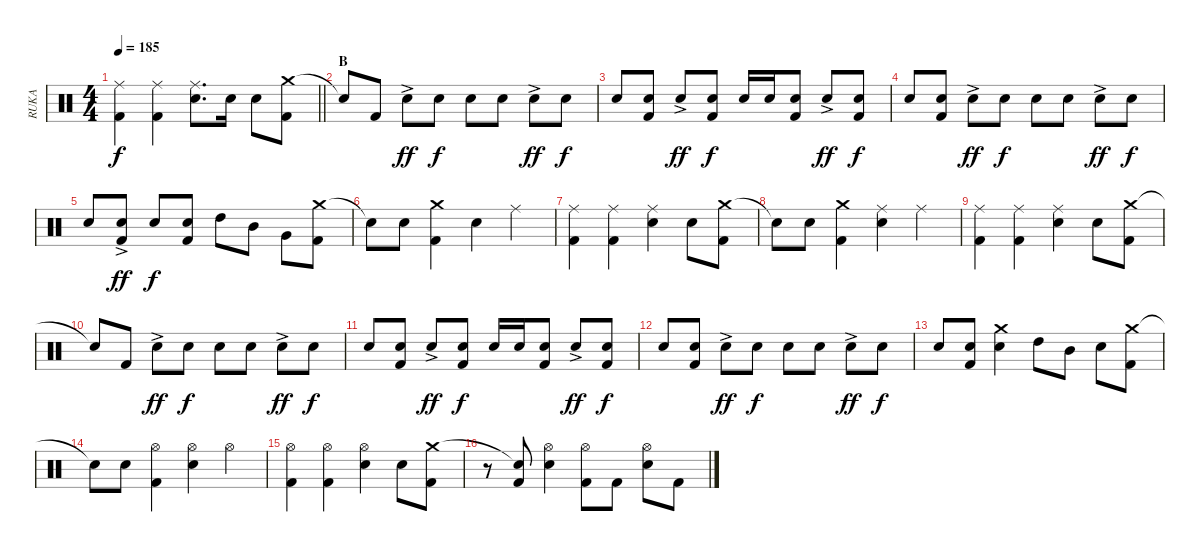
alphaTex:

\track ("RUKA" "RUKA") {instrument percussion}
\staff {score}
\articulation defaults
\ts (4 4)
\tempo 185
\clef neutral
\barLineRight lightlight
\ks c
("Ride (middle)" "Kick (hit) 2").4{dy f} ("Ride (middle)" "Kick (hit) 2").4 ("Ride (middle)" "Electric Snare (hit)").8{d} "Electric Snare (hit)".16 "Electric Snare (hit)".8 ("Crash medium (hit)" "Kick (hit) 2").8 |
\section ("" "B")
"Snare (hit)"{t}.8 "Kick (hit) 2".8 "Electric Snare (hit)"{ac}.8{dy ff} "Electric Snare (hit)".8{dy f} "Electric Snare (hit)".8 "Electric Snare (hit)".8 "Electric Snare (hit)"{ac}.8{dy ff} "Electric Snare (hit)".8{dy f} |
"Electric Snare (hit)".8 ("Electric Snare (hit)" "Kick (hit) 2").8 "Electric Snare (hit)"{ac}.8{dy ff} ("Electric Snare (hit)" "Kick (hit) 2").8{dy f} "Electric Snare (hit)".16 "Electric Snare (hit)".16 ("Electric Snare (hit)" "Kick (hit) 2").8 "Electric Snare (hit)"{ac}.8{dy ff} ("Electric Snare (hit)" "Kick (hit) 2").8{dy f} |
"Electric Snare (hit)".8 ("Electric Snare (hit)" "Kick (hit) 2").8 "Electric Snare (hit)"{ac}.8{dy ff} "Electric Snare (hit)".8{dy f} "Electric Snare (hit)".8 "Electric Snare (hit)".8 "Electric Snare (hit)"{ac}.8{dy ff} "Electric Snare (hit)".8{dy f} |
"Electric Snare (hit)".8 ("Electric Snare (hit)"{ac} "Kick (hit) 2").8{dy ff} "Electric Snare (hit)".8{dy f} ("Electric Snare (hit)" "Kick (hit) 2").8 "High Tom (hit)".8 "Mid Tom (hit)".8 "Very Low Tom (hit)".8 ("Crash medium (hit)" "Kick (hit) 2").8 |
"Snare (hit)"{t}.8 "Electric Snare (hit)".8 ("Crash medium (hit)" "Kick (hit) 2").4 "Electric Snare (hit)".4 "Ride (middle)".4 |
("Ride (middle)" "Kick (hit) 2").4 ("Ride (middle)" "Kick (hit) 2").4 ("Ride (middle)" "Electric Snare (hit)").4 "Electric Snare (hit)".8 ("Crash medium (hit)" "Kick (hit) 2").8 |
"Snare (hit)"{t}.8 "Electric Snare (hit)".8 ("Crash medium (hit)" "Kick (hit) 2").4 ("Ride (middle)" "Electric Snare (hit)").4 "Ride (middle)".4 |
("Ride (middle)" "Kick (hit) 2").4 ("Ride (middle)" "Kick (hit) 2").4 ("Ride (middle)" "Electric Snare (hit)").4 "Electric Snare (hit)".8 ("Crash medium (hit)" "Kick (hit) 2").8 |
"Snare (hit)"{t}.8 "Kick (hit) 2".8 "Electric Snare (hit)"{ac}.8{dy ff} "Electric Snare (hit)".8{dy f} "Electric Snare (hit)".8 "Electric Snare (hit)".8 "Electric Snare (hit)"{ac}.8{dy ff} "Electric Snare (hit)".8{dy f} |
"Electric Snare (hit)".8 ("Electric Snare (hit)" "Kick (hit) 2").8 "Electric Snare (hit)"{ac}.8{dy ff} ("Electric Snare (hit)" "Kick (hit) 2").8{dy f} "Electric Snare (hit)".16 "Electric Snare (hit)".16 ("Electric Snare (hit)" "Kick (hit) 2").8 "Electric Snare (hit)"{ac}.8{dy ff} ("Electric Snare (hit)" "Kick (hit) 2").8{dy f} |
"Electric Snare (hit)".8 ("Electric Snare (hit)" "Kick (hit) 2").8 "Electric Snare (hit)"{ac}.8{dy ff} "Electric Snare (hit)".8{dy f} "Electric Snare (hit)".8 "Electric Snare (hit)".8 "Electric Snare (hit)"{ac}.8{dy ff} "Electric Snare (hit)".8{dy f} |
"Electric Snare (hit)".8 ("Electric Snare (hit)" "Kick (hit) 2").8 ("Crash medium (hit)" "Electric Snare (hit)").4 "High Tom (hit)".8 "Mid Tom (hit)".8 "Electric Snare (hit)".8 ("Crash medium (hit)" "Kick (hit) 2").8 |
"Snare (hit)"{t}.8 "Electric Snare (hit)".8 ("Hi-Hat (open)" "Kick (hit) 2").4 ("Hi-Hat (open)" "Electric Snare (hit)").4 "Hi-Hat (open)".4 |
("Hi-Hat (open)" "Kick (hit) 2").4 ("Hi-Hat (open)" "Kick (hit) 2").4 ("Hi-Hat (open)" "Electric Snare (hit)").4 "Electric Snare (hit)".8 ("Crash medium (hit)" "Kick (hit) 2").8 |
r.8 ("Snare (hit)"{t} "Kick (hit) 2").8 ("Hi-Hat (open)" "Electric Snare (hit)").4 ("Hi-Hat (open)" "Kick (hit) 2").8 "Kick (hit) 2".8 ("Hi-Hat (open)" "Electric Snare (hit)").8 "Kick (hit) 2".8
